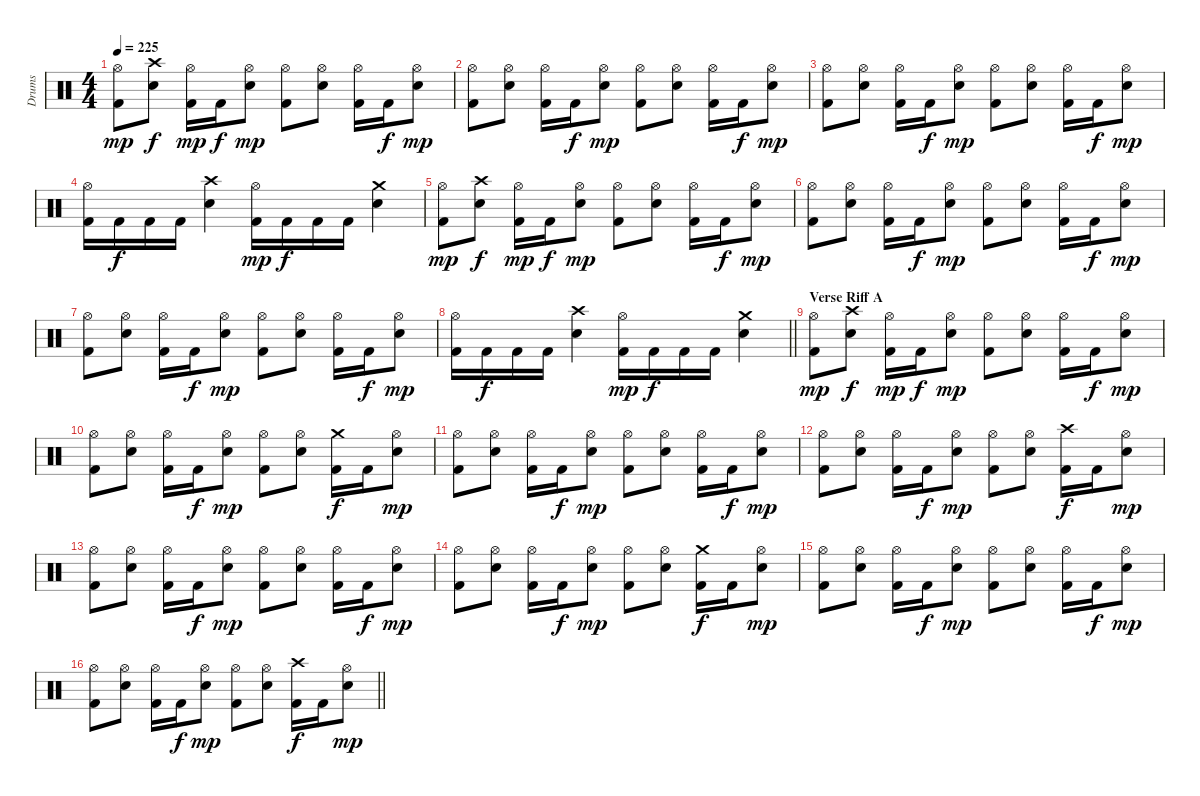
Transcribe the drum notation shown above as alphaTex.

\track ("Drums" "Drums") {instrument percussion}
\staff {score}
\articulation defaults
\ts (4 4)
\tempo 225
\clef neutral
\ks c
("Hi-Hat (open)" "Kick (hit) 2").8{dy mp} ("Crash high (hit)" "Snare (hit) 2").8{dy f} ("Hi-Hat (open)" "Kick (hit) 2").16{dy mp} "Kick (hit) 2".16{dy f} ("Hi-Hat (open)" "Snare (hit) 2").8{dy mp} ("Hi-Hat (open)" "Kick (hit) 2").8 ("Hi-Hat (open)" "Snare (hit) 2").8 ("Hi-Hat (open)" "Kick (hit) 2").16 "Kick (hit) 2".16{dy f} ("Hi-Hat (open)" "Snare (hit) 2").8{dy mp} |
("Hi-Hat (open)" "Kick (hit) 2").8 ("Hi-Hat (open)" "Snare (hit) 2").8 ("Hi-Hat (open)" "Kick (hit) 2").16 "Kick (hit) 2".16{dy f} ("Hi-Hat (open)" "Snare (hit) 2").8{dy mp} ("Hi-Hat (open)" "Kick (hit) 2").8 ("Hi-Hat (open)" "Snare (hit) 2").8 ("Hi-Hat (open)" "Kick (hit) 2").16 "Kick (hit) 2".16{dy f} ("Hi-Hat (open)" "Snare (hit) 2").8{dy mp} |
("Hi-Hat (open)" "Kick (hit) 2").8 ("Hi-Hat (open)" "Snare (hit) 2").8 ("Hi-Hat (open)" "Kick (hit) 2").16 "Kick (hit) 2".16{dy f} ("Hi-Hat (open)" "Snare (hit) 2").8{dy mp} ("Hi-Hat (open)" "Kick (hit) 2").8 ("Hi-Hat (open)" "Snare (hit) 2").8 ("Hi-Hat (open)" "Kick (hit) 2").16 "Kick (hit) 2".16{dy f} ("Hi-Hat (open)" "Snare (hit) 2").8{dy mp} |
("Hi-Hat (open)" "Kick (hit) 2").16 "Kick (hit) 2".16{dy f} "Kick (hit) 2".16 "Kick (hit) 2".16 ("Crash high (hit)" "Snare (hit) 2").4 ("Hi-Hat (open)" "Kick (hit) 2").16{dy mp} "Kick (hit) 2".16{dy f} "Kick (hit) 2".16 "Kick (hit) 2".16 ("Crash medium (hit)" "Snare (hit) 2").4 |
("Hi-Hat (open)" "Kick (hit) 2").8{dy mp} ("Crash high (hit)" "Snare (hit) 2").8{dy f} ("Hi-Hat (open)" "Kick (hit) 2").16{dy mp} "Kick (hit) 2".16{dy f} ("Hi-Hat (open)" "Snare (hit) 2").8{dy mp} ("Hi-Hat (open)" "Kick (hit) 2").8 ("Hi-Hat (open)" "Snare (hit) 2").8 ("Hi-Hat (open)" "Kick (hit) 2").16 "Kick (hit) 2".16{dy f} ("Hi-Hat (open)" "Snare (hit) 2").8{dy mp} |
("Hi-Hat (open)" "Kick (hit) 2").8 ("Hi-Hat (open)" "Snare (hit) 2").8 ("Hi-Hat (open)" "Kick (hit) 2").16 "Kick (hit) 2".16{dy f} ("Hi-Hat (open)" "Snare (hit) 2").8{dy mp} ("Hi-Hat (open)" "Kick (hit) 2").8 ("Hi-Hat (open)" "Snare (hit) 2").8 ("Hi-Hat (open)" "Kick (hit) 2").16 "Kick (hit) 2".16{dy f} ("Hi-Hat (open)" "Snare (hit) 2").8{dy mp} |
("Hi-Hat (open)" "Kick (hit) 2").8 ("Hi-Hat (open)" "Snare (hit) 2").8 ("Hi-Hat (open)" "Kick (hit) 2").16 "Kick (hit) 2".16{dy f} ("Hi-Hat (open)" "Snare (hit) 2").8{dy mp} ("Hi-Hat (open)" "Kick (hit) 2").8 ("Hi-Hat (open)" "Snare (hit) 2").8 ("Hi-Hat (open)" "Kick (hit) 2").16 "Kick (hit) 2".16{dy f} ("Hi-Hat (open)" "Snare (hit) 2").8{dy mp} |
\barLineRight lightlight
("Hi-Hat (open)" "Kick (hit) 2").16 "Kick (hit) 2".16{dy f} "Kick (hit) 2".16 "Kick (hit) 2".16 ("Crash high (hit)" "Snare (hit) 2").4 ("Hi-Hat (open)" "Kick (hit) 2").16{dy mp} "Kick (hit) 2".16{dy f} "Kick (hit) 2".16 "Kick (hit) 2".16 ("Crash medium (hit)" "Snare (hit) 2").4 |
\section ("" "Verse Riff A")
("Hi-Hat (open)" "Kick (hit) 2").8{dy mp} ("Crash high (hit)" "Snare (hit) 2").8{dy f} ("Hi-Hat (open)" "Kick (hit) 2").16{dy mp} "Kick (hit) 2".16{dy f} ("Hi-Hat (open)" "Snare (hit) 2").8{dy mp} ("Hi-Hat (open)" "Kick (hit) 2").8 ("Hi-Hat (open)" "Snare (hit) 2").8 ("Hi-Hat (open)" "Kick (hit) 2").16 "Kick (hit) 2".16{dy f} ("Hi-Hat (open)" "Snare (hit) 2").8{dy mp} |
("Hi-Hat (open)" "Kick (hit) 2").8 ("Hi-Hat (open)" "Snare (hit) 2").8 ("Hi-Hat (open)" "Kick (hit) 2").16 "Kick (hit) 2".16{dy f} ("Hi-Hat (open)" "Snare (hit) 2").8{dy mp} ("Hi-Hat (open)" "Kick (hit) 2").8 ("Hi-Hat (open)" "Snare (hit) 2").8 ("Crash medium (hit)" "Kick (hit) 2").16{dy f} "Kick (hit) 2".16 ("Hi-Hat (open)" "Snare (hit) 2").8{dy mp} |
("Hi-Hat (open)" "Kick (hit) 2").8 ("Hi-Hat (open)" "Snare (hit) 2").8 ("Hi-Hat (open)" "Kick (hit) 2").16 "Kick (hit) 2".16{dy f} ("Hi-Hat (open)" "Snare (hit) 2").8{dy mp} ("Hi-Hat (open)" "Kick (hit) 2").8 ("Hi-Hat (open)" "Snare (hit) 2").8 ("Hi-Hat (open)" "Kick (hit) 2").16 "Kick (hit) 2".16{dy f} ("Hi-Hat (open)" "Snare (hit) 2").8{dy mp} |
("Hi-Hat (open)" "Kick (hit) 2").8 ("Hi-Hat (open)" "Snare (hit) 2").8 ("Hi-Hat (open)" "Kick (hit) 2").16 "Kick (hit) 2".16{dy f} ("Hi-Hat (open)" "Snare (hit) 2").8{dy mp} ("Hi-Hat (open)" "Kick (hit) 2").8 ("Hi-Hat (open)" "Snare (hit) 2").8 ("Crash high (hit)" "Kick (hit) 2").16{dy f} "Kick (hit) 2".16 ("Hi-Hat (open)" "Snare (hit) 2").8{dy mp} |
("Hi-Hat (open)" "Kick (hit) 2").8 ("Hi-Hat (open)" "Snare (hit) 2").8 ("Hi-Hat (open)" "Kick (hit) 2").16 "Kick (hit) 2".16{dy f} ("Hi-Hat (open)" "Snare (hit) 2").8{dy mp} ("Hi-Hat (open)" "Kick (hit) 2").8 ("Hi-Hat (open)" "Snare (hit) 2").8 ("Hi-Hat (open)" "Kick (hit) 2").16 "Kick (hit) 2".16{dy f} ("Hi-Hat (open)" "Snare (hit) 2").8{dy mp} |
("Hi-Hat (open)" "Kick (hit) 2").8 ("Hi-Hat (open)" "Snare (hit) 2").8 ("Hi-Hat (open)" "Kick (hit) 2").16 "Kick (hit) 2".16{dy f} ("Hi-Hat (open)" "Snare (hit) 2").8{dy mp} ("Hi-Hat (open)" "Kick (hit) 2").8 ("Hi-Hat (open)" "Snare (hit) 2").8 ("Crash medium (hit)" "Kick (hit) 2").16{dy f} "Kick (hit) 2".16 ("Hi-Hat (open)" "Snare (hit) 2").8{dy mp} |
("Hi-Hat (open)" "Kick (hit) 2").8 ("Hi-Hat (open)" "Snare (hit) 2").8 ("Hi-Hat (open)" "Kick (hit) 2").16 "Kick (hit) 2".16{dy f} ("Hi-Hat (open)" "Snare (hit) 2").8{dy mp} ("Hi-Hat (open)" "Kick (hit) 2").8 ("Hi-Hat (open)" "Snare (hit) 2").8 ("Hi-Hat (open)" "Kick (hit) 2").16 "Kick (hit) 2".16{dy f} ("Hi-Hat (open)" "Snare (hit) 2").8{dy mp} |
\barLineRight lightlight
("Hi-Hat (open)" "Kick (hit) 2").8 ("Hi-Hat (open)" "Snare (hit) 2").8 ("Hi-Hat (open)" "Kick (hit) 2").16 "Kick (hit) 2".16{dy f} ("Hi-Hat (open)" "Snare (hit) 2").8{dy mp} ("Hi-Hat (open)" "Kick (hit) 2").8 ("Hi-Hat (open)" "Snare (hit) 2").8 ("Crash high (hit)" "Kick (hit) 2").16{dy f} "Kick (hit) 2".16 ("Hi-Hat (open)" "Snare (hit) 2").8{dy mp}
